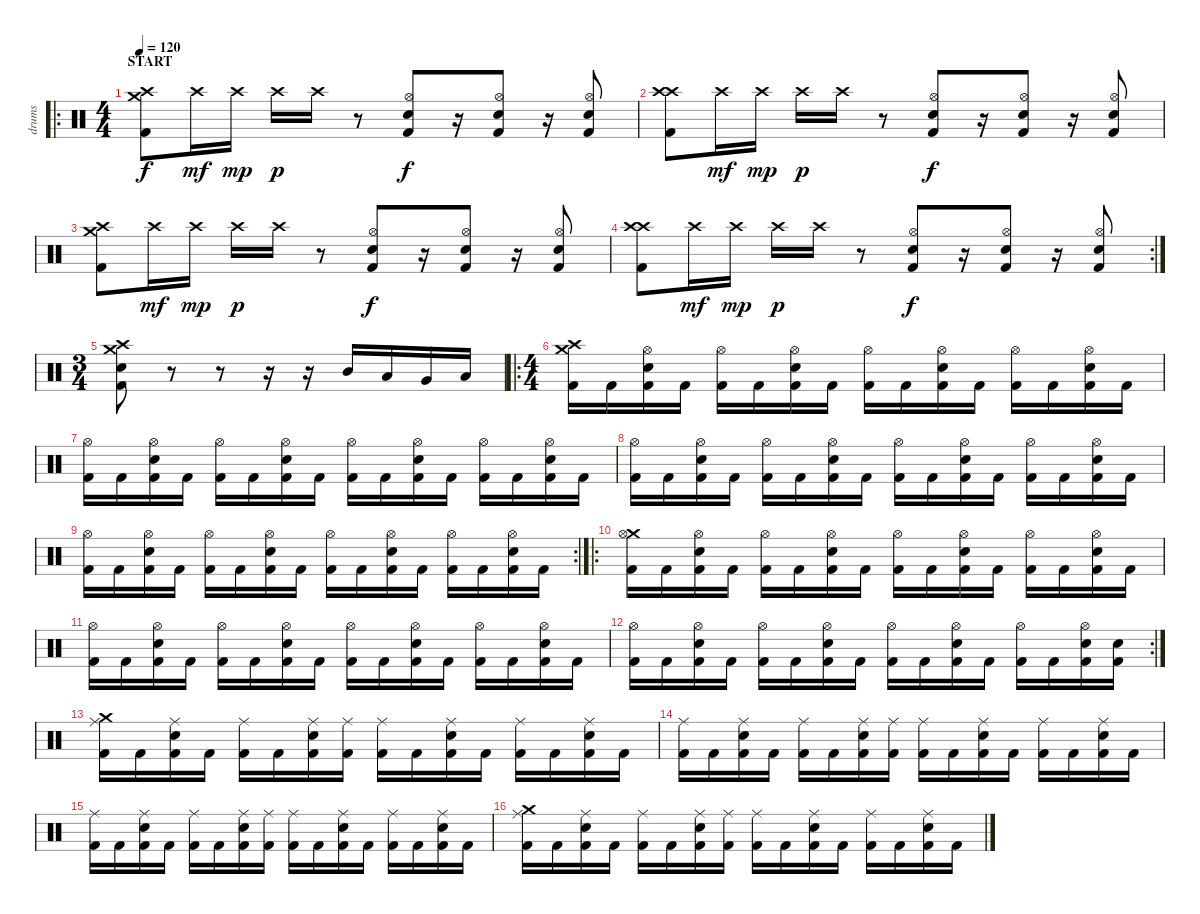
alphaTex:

\track ("drums" "drums") {instrument percussion}
\staff {score}
\articulation defaults
\ro
\ts (4 4)
\section ("" "START")
\tempo 120
\clef neutral
\ks c
("Crash medium (hit)" "Crash high (hit)" "Kick (hit) 2").8{dy f} "Crash high (hit)".16{dy mf} "Crash high (hit)".16{dy mp} "Crash high (hit)".16{dy p} "Crash high (hit)".16 r.8 ("Hi-Hat (open)" "Electric Snare (hit)" "Kick (hit) 2").8{dy f} r.16 ("Hi-Hat (open)" "Electric Snare (hit)" "Kick (hit) 2").8 r.16 ("Hi-Hat (open)" "Electric Snare (hit)" "Kick (hit) 2").8 |
("Crash high (hit)" "Crash high (hit)" "Kick (hit) 2").8 "Crash high (hit)".16{dy mf} "Crash high (hit)".16{dy mp} "Crash high (hit)".16{dy p} "Crash high (hit)".16 r.8 ("Hi-Hat (open)" "Electric Snare (hit)" "Kick (hit) 2").8{dy f} r.16 ("Hi-Hat (open)" "Electric Snare (hit)" "Kick (hit) 2").8 r.16 ("Hi-Hat (open)" "Electric Snare (hit)" "Kick (hit) 2").8 |
("Crash medium (hit)" "Crash high (hit)" "Kick (hit) 2").8 "Crash high (hit)".16{dy mf} "Crash high (hit)".16{dy mp} "Crash high (hit)".16{dy p} "Crash high (hit)".16 r.8 ("Hi-Hat (open)" "Electric Snare (hit)" "Kick (hit) 2").8{dy f} r.16 ("Hi-Hat (open)" "Electric Snare (hit)" "Kick (hit) 2").8 r.16 ("Hi-Hat (open)" "Electric Snare (hit)" "Kick (hit) 2").8 |
\rc 2
("Crash high (hit)" "Crash high (hit)" "Kick (hit) 2").8 "Crash high (hit)".16{dy mf} "Crash high (hit)".16{dy mp} "Crash high (hit)".16{dy p} "Crash high (hit)".16 r.8 ("Hi-Hat (open)" "Electric Snare (hit)" "Kick (hit) 2").8{dy f} r.16 ("Hi-Hat (open)" "Electric Snare (hit)" "Kick (hit) 2").8 r.16 ("Hi-Hat (open)" "Electric Snare (hit)" "Kick (hit) 2").8 |
\ts (3 4)
("Crash high (hit)" "Crash medium (hit)" "Electric Snare (hit)" "Kick (hit) 2").8 r.8 r.8 r.16 r.16 "Mid Tom (hit)".16 "Low Tom (hit)".16 "Very Low Tom (hit)".16 "Low Floor Tom (hit)".16 |
\ro
\ts (4 4)
("Crash high (hit)" "Crash medium (hit)" "Kick (hit) 2").16 "Kick (hit) 2".16 ("Hi-Hat (open)" "Electric Snare (hit)" "Kick (hit) 2").16 "Kick (hit) 2".16 ("Hi-Hat (open)" "Kick (hit) 2").16 "Kick (hit) 2".16 ("Hi-Hat (open)" "Electric Snare (hit)" "Kick (hit) 2").16 "Kick (hit) 2".16 ("Hi-Hat (open)" "Kick (hit) 2").16 "Kick (hit) 2".16 ("Hi-Hat (open)" "Electric Snare (hit)" "Kick (hit) 2").16 "Kick (hit) 2".16 ("Hi-Hat (open)" "Kick (hit) 2").16 "Kick (hit) 2".16 ("Hi-Hat (open)" "Electric Snare (hit)" "Kick (hit) 2").16 "Kick (hit) 2".16 |
("Hi-Hat (open)" "Kick (hit) 2").16 "Kick (hit) 2".16 ("Hi-Hat (open)" "Electric Snare (hit)" "Kick (hit) 2").16 "Kick (hit) 2".16 ("Hi-Hat (open)" "Kick (hit) 2").16 "Kick (hit) 2".16 ("Hi-Hat (open)" "Electric Snare (hit)" "Kick (hit) 2").16 "Kick (hit) 2".16 ("Hi-Hat (open)" "Kick (hit) 2").16 "Kick (hit) 2".16 ("Hi-Hat (open)" "Electric Snare (hit)" "Kick (hit) 2").16 "Kick (hit) 2".16 ("Hi-Hat (open)" "Kick (hit) 2").16 "Kick (hit) 2".16 ("Hi-Hat (open)" "Electric Snare (hit)" "Kick (hit) 2").16 "Kick (hit) 2".16 |
("Hi-Hat (open)" "Kick (hit) 2").16 "Kick (hit) 2".16 ("Hi-Hat (open)" "Electric Snare (hit)" "Kick (hit) 2").16 "Kick (hit) 2".16 ("Hi-Hat (open)" "Kick (hit) 2").16 "Kick (hit) 2".16 ("Hi-Hat (open)" "Electric Snare (hit)" "Kick (hit) 2").16 "Kick (hit) 2".16 ("Hi-Hat (open)" "Kick (hit) 2").16 "Kick (hit) 2".16 ("Hi-Hat (open)" "Electric Snare (hit)" "Kick (hit) 2").16 "Kick (hit) 2".16 ("Hi-Hat (open)" "Kick (hit) 2").16 "Kick (hit) 2".16 ("Hi-Hat (open)" "Electric Snare (hit)" "Kick (hit) 2").16 "Kick (hit) 2".16 |
\rc 2
("Hi-Hat (open)" "Kick (hit) 2").16 "Kick (hit) 2".16 ("Hi-Hat (open)" "Electric Snare (hit)" "Kick (hit) 2").16 "Kick (hit) 2".16 ("Hi-Hat (open)" "Kick (hit) 2").16 "Kick (hit) 2".16 ("Hi-Hat (open)" "Electric Snare (hit)" "Kick (hit) 2").16 "Kick (hit) 2".16 ("Hi-Hat (open)" "Kick (hit) 2").16 "Kick (hit) 2".16 ("Hi-Hat (open)" "Electric Snare (hit)" "Kick (hit) 2").16 "Kick (hit) 2".16 ("Hi-Hat (open)" "Kick (hit) 2").16 "Kick (hit) 2".16 ("Hi-Hat (open)" "Electric Snare (hit)" "Kick (hit) 2").16 "Kick (hit) 2".16 |
\ro
("Crash medium (hit)" "Hi-Hat (open)" "Kick (hit) 2").16 "Kick (hit) 2".16 ("Hi-Hat (open)" "Electric Snare (hit)" "Kick (hit) 2").16 "Kick (hit) 2".16 ("Hi-Hat (open)" "Kick (hit) 2").16 "Kick (hit) 2".16 ("Hi-Hat (open)" "Electric Snare (hit)" "Kick (hit) 2").16 "Kick (hit) 2".16 ("Hi-Hat (open)" "Kick (hit) 2").16 "Kick (hit) 2".16 ("Hi-Hat (open)" "Electric Snare (hit)" "Kick (hit) 2").16 "Kick (hit) 2".16 ("Hi-Hat (open)" "Kick (hit) 2").16 "Kick (hit) 2".16 ("Hi-Hat (open)" "Electric Snare (hit)" "Kick (hit) 2").16 "Kick (hit) 2".16 |
("Hi-Hat (open)" "Kick (hit) 2").16 "Kick (hit) 2".16 ("Hi-Hat (open)" "Electric Snare (hit)" "Kick (hit) 2").16 "Kick (hit) 2".16 ("Hi-Hat (open)" "Kick (hit) 2").16 "Kick (hit) 2".16 ("Hi-Hat (open)" "Electric Snare (hit)" "Kick (hit) 2").16 "Kick (hit) 2".16 ("Hi-Hat (open)" "Kick (hit) 2").16 "Kick (hit) 2".16 ("Hi-Hat (open)" "Electric Snare (hit)" "Kick (hit) 2").16 "Kick (hit) 2".16 ("Hi-Hat (open)" "Kick (hit) 2").16 "Kick (hit) 2".16 ("Hi-Hat (open)" "Electric Snare (hit)" "Kick (hit) 2").16 "Kick (hit) 2".16 |
\rc 2
("Hi-Hat (open)" "Kick (hit) 2").16 "Kick (hit) 2".16 ("Hi-Hat (open)" "Electric Snare (hit)" "Kick (hit) 2").16 "Kick (hit) 2".16 ("Hi-Hat (open)" "Kick (hit) 2").16 "Kick (hit) 2".16 ("Hi-Hat (open)" "Electric Snare (hit)" "Kick (hit) 2").16 "Kick (hit) 2".16 ("Hi-Hat (open)" "Kick (hit) 2").16 "Kick (hit) 2".16 ("Hi-Hat (open)" "Electric Snare (hit)" "Kick (hit) 2").16 "Kick (hit) 2".16 ("Hi-Hat (open)" "Kick (hit) 2").16 "Kick (hit) 2".16 ("Hi-Hat (open)" "Electric Snare (hit)" "Kick (hit) 2").16 ("Electric Snare (hit)" "Kick (hit) 2").16 |
("Crash medium (hit)" "Ride (middle)" "Kick (hit) 2").16 "Kick (hit) 2".16 ("Ride (middle)" "Electric Snare (hit)" "Kick (hit) 2").16 "Kick (hit) 2".16 ("Ride (middle)" "Kick (hit) 2").16 "Kick (hit) 2".16 ("Ride (middle)" "Electric Snare (hit)" "Kick (hit) 2").16 ("Ride (middle)" "Kick (hit) 2").16 ("Ride (middle)" "Kick (hit) 2").16 "Kick (hit) 2".16 ("Ride (middle)" "Electric Snare (hit)" "Kick (hit) 2").16 "Kick (hit) 2".16 ("Ride (middle)" "Kick (hit) 2").16 "Kick (hit) 2".16 ("Ride (middle)" "Electric Snare (hit)" "Kick (hit) 2").16 "Kick (hit) 2".16 |
("Ride (middle)" "Kick (hit) 2").16 "Kick (hit) 2".16 ("Ride (middle)" "Electric Snare (hit)" "Kick (hit) 2").16 "Kick (hit) 2".16 ("Ride (middle)" "Kick (hit) 2").16 "Kick (hit) 2".16 ("Ride (middle)" "Electric Snare (hit)" "Kick (hit) 2").16 ("Ride (middle)" "Kick (hit) 2").16 ("Ride (middle)" "Kick (hit) 2").16 "Kick (hit) 2".16 ("Ride (middle)" "Electric Snare (hit)" "Kick (hit) 2").16 "Kick (hit) 2".16 ("Ride (middle)" "Kick (hit) 2").16 "Kick (hit) 2".16 ("Ride (middle)" "Electric Snare (hit)" "Kick (hit) 2").16 "Kick (hit) 2".16 |
("Ride (middle)" "Kick (hit) 2").16 "Kick (hit) 2".16 ("Ride (middle)" "Electric Snare (hit)" "Kick (hit) 2").16 "Kick (hit) 2".16 ("Ride (middle)" "Kick (hit) 2").16 "Kick (hit) 2".16 ("Ride (middle)" "Electric Snare (hit)" "Kick (hit) 2").16 ("Ride (middle)" "Kick (hit) 2").16 ("Ride (middle)" "Kick (hit) 2").16 "Kick (hit) 2".16 ("Ride (middle)" "Electric Snare (hit)" "Kick (hit) 2").16 "Kick (hit) 2".16 ("Ride (middle)" "Kick (hit) 2").16 "Kick (hit) 2".16 ("Ride (middle)" "Electric Snare (hit)" "Kick (hit) 2").16 "Kick (hit) 2".16 |
("Crash medium (hit)" "Ride (middle)" "Kick (hit) 2").16 "Kick (hit) 2".16 ("Ride (middle)" "Electric Snare (hit)" "Kick (hit) 2").16 "Kick (hit) 2".16 ("Ride (middle)" "Kick (hit) 2").16 "Kick (hit) 2".16 ("Ride (middle)" "Electric Snare (hit)" "Kick (hit) 2").16 ("Ride (middle)" "Kick (hit) 2").16 ("Ride (middle)" "Kick (hit) 2").16 "Kick (hit) 2".16 ("Ride (middle)" "Electric Snare (hit)" "Kick (hit) 2").16 "Kick (hit) 2".16 ("Ride (middle)" "Kick (hit) 2").16 "Kick (hit) 2".16 ("Ride (middle)" "Electric Snare (hit)" "Kick (hit) 2").16 "Kick (hit) 2".16
